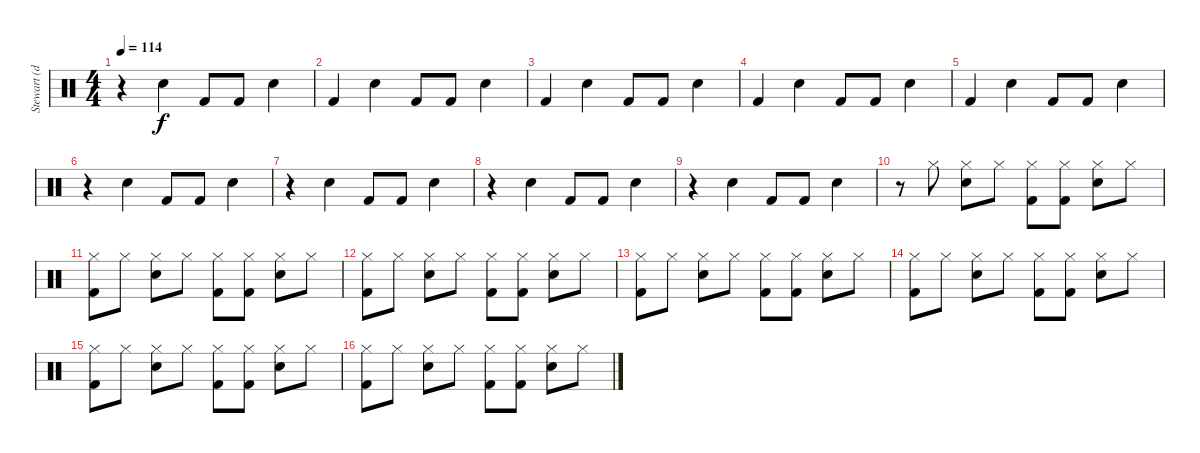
\track ("Stewart (drums)" "Stewart (d") {instrument percussion}
\staff {score}
\articulation defaults
\ts (4 4)
\tempo 114
\clef neutral
\ks c
r.4{dy f} "Snare (hit) 2".4 "Kick (hit) 2".8 "Kick (hit) 2".8 "Snare (hit) 2".4 |
"Kick (hit) 2".4 "Snare (hit) 2".4 "Kick (hit) 2".8 "Kick (hit) 2".8 "Snare (hit) 2".4 |
"Kick (hit) 2".4 "Snare (hit) 2".4 "Kick (hit) 2".8 "Kick (hit) 2".8 "Snare (hit) 2".4 |
"Kick (hit) 2".4 "Snare (hit) 2".4 "Kick (hit) 2".8 "Kick (hit) 2".8 "Snare (hit) 2".4 |
"Kick (hit) 2".4 "Snare (hit) 2".4 "Kick (hit) 2".8 "Kick (hit) 2".8 "Snare (hit) 2".4 |
r.4 "Snare (hit) 2".4 "Kick (hit) 2".8 "Kick (hit) 2".8 "Snare (hit) 2".4 |
r.4 "Snare (hit) 2".4 "Kick (hit) 2".8 "Kick (hit) 2".8 "Snare (hit) 2".4 |
r.4 "Snare (hit) 2".4 "Kick (hit) 2".8 "Kick (hit) 2".8 "Snare (hit) 2".4 |
r.4 "Snare (hit) 2".4 "Kick (hit) 2".8 "Kick (hit) 2".8 "Snare (hit) 2".4 |
r.8 "Hi-Hat (closed)".8 ("Hi-Hat (closed)" "Snare (hit) 2").8 "Hi-Hat (closed)".8 ("Hi-Hat (closed)" "Kick (hit) 2").8 ("Hi-Hat (closed)" "Kick (hit) 2").8 ("Hi-Hat (closed)" "Snare (hit) 2").8 "Hi-Hat (closed)".8 |
("Hi-Hat (closed)" "Kick (hit) 2").8 "Hi-Hat (closed)".8 ("Hi-Hat (closed)" "Snare (hit) 2").8 "Hi-Hat (closed)".8 ("Hi-Hat (closed)" "Kick (hit) 2").8 ("Hi-Hat (closed)" "Kick (hit) 2").8 ("Hi-Hat (closed)" "Snare (hit) 2").8 "Hi-Hat (closed)".8 |
("Hi-Hat (closed)" "Kick (hit) 2").8 "Hi-Hat (closed)".8 ("Hi-Hat (closed)" "Snare (hit) 2").8 "Hi-Hat (closed)".8 ("Hi-Hat (closed)" "Kick (hit) 2").8 ("Hi-Hat (closed)" "Kick (hit) 2").8 ("Hi-Hat (closed)" "Snare (hit) 2").8 "Hi-Hat (closed)".8 |
("Hi-Hat (closed)" "Kick (hit) 2").8 "Hi-Hat (closed)".8 ("Hi-Hat (closed)" "Snare (hit) 2").8 "Hi-Hat (closed)".8 ("Hi-Hat (closed)" "Kick (hit) 2").8 ("Hi-Hat (closed)" "Kick (hit) 2").8 ("Hi-Hat (closed)" "Snare (hit) 2").8 "Hi-Hat (closed)".8 |
("Hi-Hat (closed)" "Kick (hit) 2").8 "Hi-Hat (closed)".8 ("Hi-Hat (closed)" "Snare (hit) 2").8 "Hi-Hat (closed)".8 ("Hi-Hat (closed)" "Kick (hit) 2").8 ("Hi-Hat (closed)" "Kick (hit) 2").8 ("Hi-Hat (closed)" "Snare (hit) 2").8 "Hi-Hat (closed)".8 |
("Hi-Hat (closed)" "Kick (hit) 2").8 "Hi-Hat (closed)".8 ("Hi-Hat (closed)" "Snare (hit) 2").8 "Hi-Hat (closed)".8 ("Hi-Hat (closed)" "Kick (hit) 2").8 ("Hi-Hat (closed)" "Kick (hit) 2").8 ("Hi-Hat (closed)" "Snare (hit) 2").8 "Hi-Hat (closed)".8 |
("Hi-Hat (closed)" "Kick (hit) 2").8 "Hi-Hat (closed)".8 ("Hi-Hat (closed)" "Snare (hit) 2").8 "Hi-Hat (closed)".8 ("Hi-Hat (closed)" "Kick (hit) 2").8 ("Hi-Hat (closed)" "Kick (hit) 2").8 ("Hi-Hat (closed)" "Snare (hit) 2").8 "Hi-Hat (closed)".8
